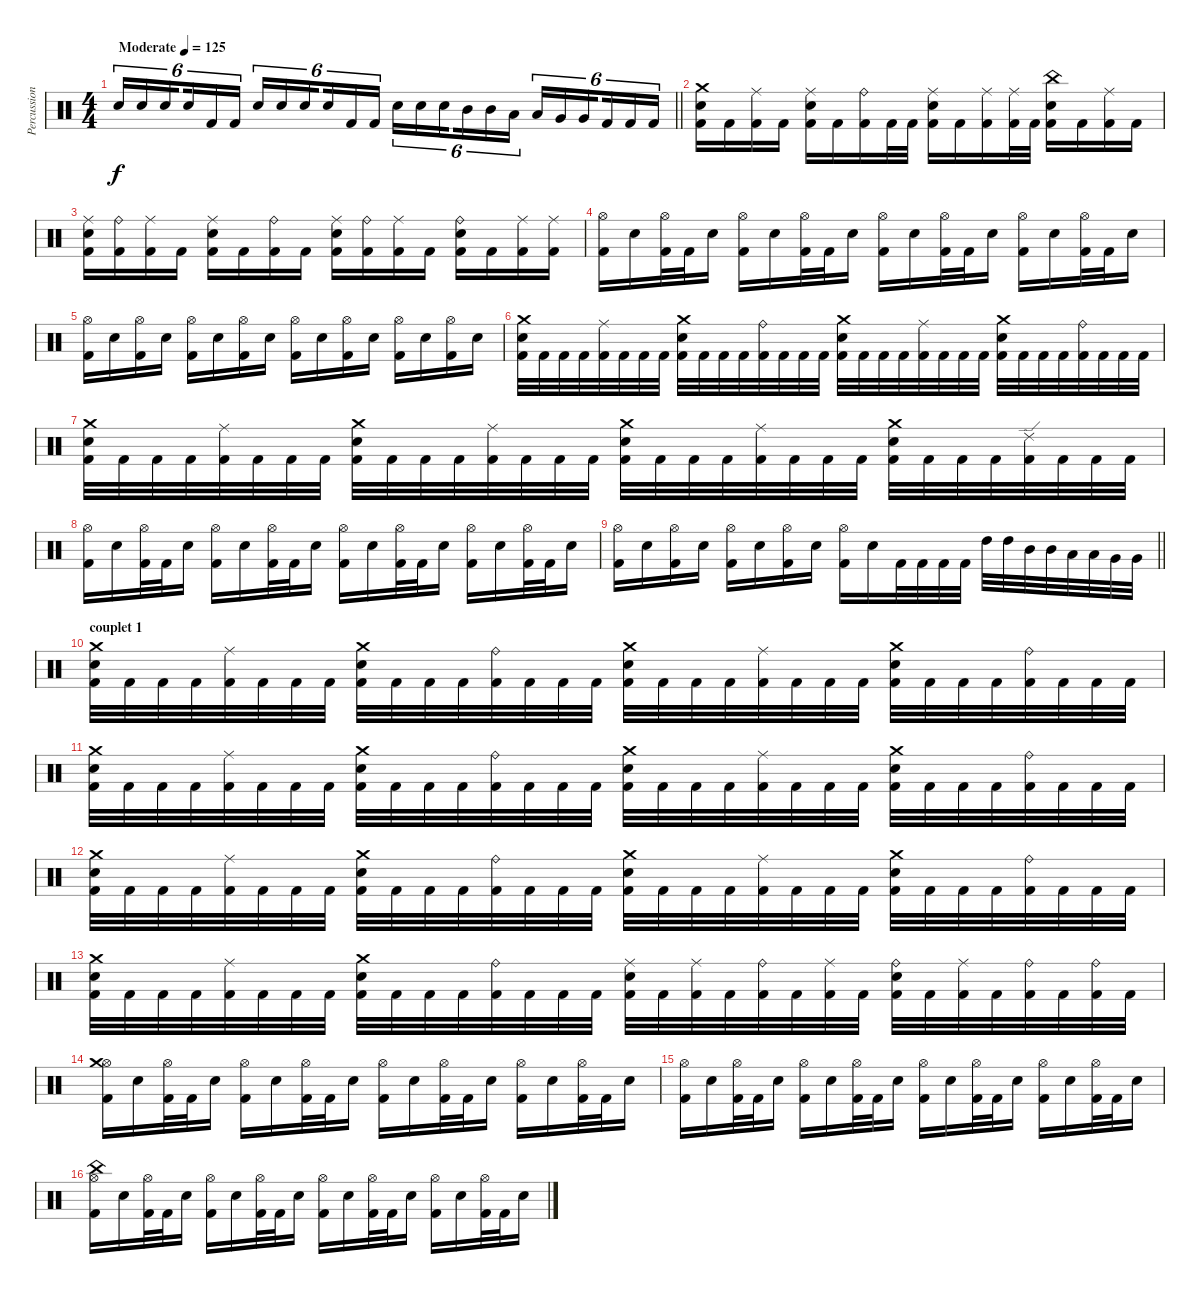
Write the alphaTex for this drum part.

\track ("Percussions" "Percussion") {instrument percussion}
\staff {score}
\articulation defaults
\ts (4 4)
\tempo (125 "Moderate")
\clef neutral
\barLineRight lightlight
\ks c "Electric Snare (hit)".16{tu (6 4) dy f} "Electric Snare (hit)".16{tu (6 4)} "Electric Snare (hit)".16{tu (6 4) beam splitsecondary} "Electric Snare (hit)".16{tu (6 4)} "Kick (hit) 2".16{tu (6 4)} "Kick (hit) 2".16{tu (6 4)} "Electric Snare (hit)".16{tu (6 4)} "Electric Snare (hit)".16{tu (6 4)} "Electric Snare (hit)".16{tu (6 4) beam splitsecondary} "Electric Snare (hit)".16{tu (6 4)} "Kick (hit) 2".16{tu (6 4)} "Kick (hit) 2".16{tu (6 4)} "Electric Snare (hit)".16{tu (6 4)} "Electric Snare (hit)".16{tu (6 4)} "Electric Snare (hit)".16{tu (6 4) beam splitsecondary} "Mid Tom (hit)".16{tu (6 4)} "Mid Tom (hit)".16{tu (6 4)} "Low Tom (hit)".16{tu (6 4)} "Low Tom (hit)".16{tu (6 4)} "Very Low Tom (hit)".16{tu (6 4)} "Very Low Tom (hit)".16{tu (6 4) beam splitsecondary} "Kick (hit) 2".16{tu (6 4)} "Kick (hit) 2".16{tu (6 4)} "Kick (hit) 2".16{tu (6 4)}
|
("Crash medium (hit)" "Electric Snare (hit)" "Kick (hit) 2").16 "Kick (hit) 2".16 ("Ride (middle)" "Kick (hit) 2").16 "Kick (hit) 2".16 ("Ride (middle)" "Electric Snare (hit)" "Kick (hit) 2").16 "Kick (hit) 2".16 ("Ride (bell)" "Kick (hit) 2").16 "Kick (hit) 2".32 "Kick (hit) 2".32 ("Ride (middle)" "Electric Snare (hit)" "Kick (hit) 2").16 "Kick (hit) 2".16 ("Ride (middle)" "Kick (hit) 2").16 ("Ride (middle)" "Kick (hit) 2").32 "Kick (hit) 2".32 ("China (hit)" "Electric Snare (hit)" "Kick (hit) 2").16 "Kick (hit) 2".16 ("Ride (middle)" "Kick (hit) 2").16 "Kick (hit) 2".16 |
("Ride (middle)" "Electric Snare (hit)" "Kick (hit) 2").16 ("Ride (bell)" "Kick (hit) 2").16 ("Ride (middle)" "Kick (hit) 2").16 "Kick (hit) 2".16 ("Ride (middle)" "Electric Snare (hit)" "Kick (hit) 2").16 "Kick (hit) 2".16 ("Ride (bell)" "Kick (hit) 2").16 "Kick (hit) 2".16 ("Ride (middle)" "Electric Snare (hit)" "Kick (hit) 2").16 ("Ride (bell)" "Kick (hit) 2").16 ("Ride (middle)" "Kick (hit) 2").16 "Kick (hit) 2".16 ("Ride (bell)" "Electric Snare (hit)" "Kick (hit) 2").16 "Kick (hit) 2".16 ("Ride (middle)" "Kick (hit) 2").16 ("Ride (middle)" "Kick (hit) 2").16 |
("Hi-Hat (open)" "Kick (hit) 2").16 "Electric Snare (hit)".16 ("Hi-Hat (open)" "Kick (hit) 2").32 "Kick (hit) 2".32 "Electric Snare (hit)".16 ("Hi-Hat (open)" "Kick (hit) 2").16 "Electric Snare (hit)".16 ("Hi-Hat (open)" "Kick (hit) 2").32 "Kick (hit) 2".32 "Electric Snare (hit)".16 ("Hi-Hat (open)" "Kick (hit) 2").16 "Electric Snare (hit)".16 ("Hi-Hat (open)" "Kick (hit) 2").32 "Kick (hit) 2".32 "Electric Snare (hit)".16 ("Hi-Hat (open)" "Kick (hit) 2").16 "Electric Snare (hit)".16 ("Hi-Hat (open)" "Kick (hit) 2").32 "Kick (hit) 2".32 "Electric Snare (hit)".16 |
("Hi-Hat (open)" "Kick (hit) 2").16 "Electric Snare (hit)".16 ("Hi-Hat (open)" "Kick (hit) 2").16 "Electric Snare (hit)".16 ("Hi-Hat (open)" "Kick (hit) 2").16 "Electric Snare (hit)".16 ("Hi-Hat (open)" "Kick (hit) 2").16 "Electric Snare (hit)".16 ("Hi-Hat (open)" "Kick (hit) 2").16 "Electric Snare (hit)".16 ("Hi-Hat (open)" "Kick (hit) 2").16 "Electric Snare (hit)".16 ("Hi-Hat (open)" "Kick (hit) 2").16 "Electric Snare (hit)".16 ("Hi-Hat (open)" "Kick (hit) 2").16 "Electric Snare (hit)".16 |
("Crash medium (hit)" "Electric Snare (hit)" "Kick (hit) 2").32 "Kick (hit) 2".32 "Kick (hit) 2".32 "Kick (hit) 2".32 ("Ride (middle)" "Kick (hit) 2").32 "Kick (hit) 2".32 "Kick (hit) 2".32 "Kick (hit) 2".32 ("Crash medium (hit)" "Electric Snare (hit)" "Kick (hit) 2").32 "Kick (hit) 2".32 "Kick (hit) 2".32 "Kick (hit) 2".32 ("Ride (bell)" "Kick (hit) 2").32 "Kick (hit) 2".32 "Kick (hit) 2".32 "Kick (hit) 2".32 ("Crash medium (hit)" "Electric Snare (hit)" "Kick (hit) 2").32 "Kick (hit) 2".32 "Kick (hit) 2".32 "Kick (hit) 2".32 ("Ride (middle)" "Kick (hit) 2").32 "Kick (hit) 2".32 "Kick (hit) 2".32 "Kick (hit) 2".32 ("Crash medium (hit)" "Electric Snare (hit)" "Kick (hit) 2").32 "Kick (hit) 2".32 "Kick (hit) 2".32 "Kick (hit) 2".32 ("Ride (bell)" "Kick (hit) 2").32 "Kick (hit) 2".32 "Kick (hit) 2".32 "Kick (hit) 2".32 |
("Crash medium (hit)" "Electric Snare (hit)" "Kick (hit) 2").32 "Kick (hit) 2".32 "Kick (hit) 2".32 "Kick (hit) 2".32 ("Ride (middle)" "Kick (hit) 2").32 "Kick (hit) 2".32 "Kick (hit) 2".32 "Kick (hit) 2".32 ("Crash medium (hit)" "Electric Snare (hit)" "Kick (hit) 2").32 "Kick (hit) 2".32 "Kick (hit) 2".32 "Kick (hit) 2".32 ("Ride (middle)" "Kick (hit) 2").32 "Kick (hit) 2".32 "Kick (hit) 2".32 "Kick (hit) 2".32 ("Crash medium (hit)" "Electric Snare (hit)" "Kick (hit) 2").32 "Kick (hit) 2".32 "Kick (hit) 2".32 "Kick (hit) 2".32 ("Ride (middle)" "Kick (hit) 2").32 "Kick (hit) 2".32 "Kick (hit) 2".32 "Kick (hit) 2".32 ("Crash medium (hit)" "Electric Snare (hit)" "Kick (hit) 2").32 "Kick (hit) 2".32 "Kick (hit) 2".32 "Kick (hit) 2".32 ("Ride (edge) 2" "Kick (hit) 2").32 "Kick (hit) 2".32 "Kick (hit) 2".32 "Kick (hit) 2".32 |
("Hi-Hat (open)" "Kick (hit) 2").16 "Electric Snare (hit)".16 ("Hi-Hat (open)" "Kick (hit) 2").32 "Kick (hit) 2".32 "Electric Snare (hit)".16 ("Hi-Hat (open)" "Kick (hit) 2").16 "Electric Snare (hit)".16 ("Hi-Hat (open)" "Kick (hit) 2").32 "Kick (hit) 2".32 "Electric Snare (hit)".16 ("Hi-Hat (open)" "Kick (hit) 2").16 "Electric Snare (hit)".16 ("Hi-Hat (open)" "Kick (hit) 2").32 "Kick (hit) 2".32 "Electric Snare (hit)".16 ("Hi-Hat (open)" "Kick (hit) 2").16 "Electric Snare (hit)".16 ("Hi-Hat (open)" "Kick (hit) 2").32 "Kick (hit) 2".32 "Electric Snare (hit)".16 |
\barLineRight lightlight
("Hi-Hat (open)" "Kick (hit) 2").16 "Electric Snare (hit)".16 ("Hi-Hat (open)" "Kick (hit) 2").16 "Electric Snare (hit)".16 ("Hi-Hat (open)" "Kick (hit) 2").16 "Electric Snare (hit)".16 ("Hi-Hat (open)" "Kick (hit) 2").16 "Electric Snare (hit)".16 ("Hi-Hat (open)" "Kick (hit) 2").16 "Electric Snare (hit)".16 "Kick (hit) 2".32 "Kick (hit) 2".32 "Kick (hit) 2".32 "Kick (hit) 2".32 "High Tom (hit)".32 "High Tom (hit)".32 "Mid Tom (hit)".32 "Mid Tom (hit)".32 "Low Tom (hit)".32 "Low Tom (hit)".32 "Very Low Tom (hit)".32 "Very Low Tom (hit)".32 |
\section ("" "couplet 1")
("Crash medium (hit)" "Electric Snare (hit)" "Kick (hit) 2").32 "Kick (hit) 2".32 "Kick (hit) 2".32 "Kick (hit) 2".32 ("Ride (middle)" "Kick (hit) 2").32 "Kick (hit) 2".32 "Kick (hit) 2".32 "Kick (hit) 2".32 ("Crash medium (hit)" "Electric Snare (hit)" "Kick (hit) 2").32 "Kick (hit) 2".32 "Kick (hit) 2".32 "Kick (hit) 2".32 ("Ride (bell)" "Kick (hit) 2").32 "Kick (hit) 2".32 "Kick (hit) 2".32 "Kick (hit) 2".32 ("Crash medium (hit)" "Electric Snare (hit)" "Kick (hit) 2").32 "Kick (hit) 2".32 "Kick (hit) 2".32 "Kick (hit) 2".32 ("Ride (middle)" "Kick (hit) 2").32 "Kick (hit) 2".32 "Kick (hit) 2".32 "Kick (hit) 2".32 ("Crash medium (hit)" "Electric Snare (hit)" "Kick (hit) 2").32 "Kick (hit) 2".32 "Kick (hit) 2".32 "Kick (hit) 2".32 ("Ride (bell)" "Kick (hit) 2").32 "Kick (hit) 2".32 "Kick (hit) 2".32 "Kick (hit) 2".32 |
("Crash medium (hit)" "Electric Snare (hit)" "Kick (hit) 2").32 "Kick (hit) 2".32 "Kick (hit) 2".32 "Kick (hit) 2".32 ("Ride (middle)" "Kick (hit) 2").32 "Kick (hit) 2".32 "Kick (hit) 2".32 "Kick (hit) 2".32 ("Crash medium (hit)" "Electric Snare (hit)" "Kick (hit) 2").32 "Kick (hit) 2".32 "Kick (hit) 2".32 "Kick (hit) 2".32 ("Ride (bell)" "Kick (hit) 2").32 "Kick (hit) 2".32 "Kick (hit) 2".32 "Kick (hit) 2".32 ("Crash medium (hit)" "Electric Snare (hit)" "Kick (hit) 2").32 "Kick (hit) 2".32 "Kick (hit) 2".32 "Kick (hit) 2".32 ("Ride (middle)" "Kick (hit) 2").32 "Kick (hit) 2".32 "Kick (hit) 2".32 "Kick (hit) 2".32 ("Crash medium (hit)" "Electric Snare (hit)" "Kick (hit) 2").32 "Kick (hit) 2".32 "Kick (hit) 2".32 "Kick (hit) 2".32 ("Ride (bell)" "Kick (hit) 2").32 "Kick (hit) 2".32 "Kick (hit) 2".32 "Kick (hit) 2".32 |
("Crash medium (hit)" "Electric Snare (hit)" "Kick (hit) 2").32 "Kick (hit) 2".32 "Kick (hit) 2".32 "Kick (hit) 2".32 ("Ride (middle)" "Kick (hit) 2").32 "Kick (hit) 2".32 "Kick (hit) 2".32 "Kick (hit) 2".32 ("Crash medium (hit)" "Electric Snare (hit)" "Kick (hit) 2").32 "Kick (hit) 2".32 "Kick (hit) 2".32 "Kick (hit) 2".32 ("Ride (bell)" "Kick (hit) 2").32 "Kick (hit) 2".32 "Kick (hit) 2".32 "Kick (hit) 2".32 ("Crash medium (hit)" "Electric Snare (hit)" "Kick (hit) 2").32 "Kick (hit) 2".32 "Kick (hit) 2".32 "Kick (hit) 2".32 ("Ride (middle)" "Kick (hit) 2").32 "Kick (hit) 2".32 "Kick (hit) 2".32 "Kick (hit) 2".32 ("Crash medium (hit)" "Electric Snare (hit)" "Kick (hit) 2").32 "Kick (hit) 2".32 "Kick (hit) 2".32 "Kick (hit) 2".32 ("Ride (bell)" "Kick (hit) 2").32 "Kick (hit) 2".32 "Kick (hit) 2".32 "Kick (hit) 2".32 |
("Crash medium (hit)" "Electric Snare (hit)" "Kick (hit) 2").32 "Kick (hit) 2".32 "Kick (hit) 2".32 "Kick (hit) 2".32 ("Ride (middle)" "Kick (hit) 2").32 "Kick (hit) 2".32 "Kick (hit) 2".32 "Kick (hit) 2".32 ("Crash medium (hit)" "Electric Snare (hit)" "Kick (hit) 2").32 "Kick (hit) 2".32 "Kick (hit) 2".32 "Kick (hit) 2".32 ("Ride (bell)" "Kick (hit) 2").32 "Kick (hit) 2".32 "Kick (hit) 2".32 "Kick (hit) 2".32 ("Ride (middle)" "Electric Snare (hit)" "Kick (hit) 2").32 "Kick (hit) 2".32 ("Ride (middle)" "Kick (hit) 2").32 "Kick (hit) 2".32 ("Ride (bell)" "Kick (hit) 2").32 "Kick (hit) 2".32 ("Ride (middle)" "Kick (hit) 2").32 "Kick (hit) 2".32 ("Ride (bell)" "Electric Snare (hit)" "Kick (hit) 2").32 "Kick (hit) 2".32 ("Ride (middle)" "Kick (hit) 2").32 "Kick (hit) 2".32 ("Ride (bell)" "Kick (hit) 2").32 "Kick (hit) 2".32 ("Ride (bell)" "Kick (hit) 2").32 "Kick (hit) 2".32 |
("Hi-Hat (open)" "Crash medium (hit)" "Kick (hit) 2").16 "Electric Snare (hit)".16 ("Hi-Hat (open)" "Kick (hit) 2").32 "Kick (hit) 2".32 "Electric Snare (hit)".16 ("Hi-Hat (open)" "Kick (hit) 2").16 "Electric Snare (hit)".16 ("Hi-Hat (open)" "Kick (hit) 2").32 "Kick (hit) 2".32 "Electric Snare (hit)".16 ("Hi-Hat (open)" "Kick (hit) 2").16 "Electric Snare (hit)".16 ("Hi-Hat (open)" "Kick (hit) 2").32 "Kick (hit) 2".32 "Electric Snare (hit)".16 ("Hi-Hat (open)" "Kick (hit) 2").16 "Electric Snare (hit)".16 ("Hi-Hat (open)" "Kick (hit) 2").32 "Kick (hit) 2".32 "Electric Snare (hit)".16 |
("Hi-Hat (open)" "Kick (hit) 2").16 "Electric Snare (hit)".16 ("Hi-Hat (open)" "Kick (hit) 2").32 "Kick (hit) 2".32 "Electric Snare (hit)".16 ("Hi-Hat (open)" "Kick (hit) 2").16 "Electric Snare (hit)".16 ("Hi-Hat (open)" "Kick (hit) 2").32 "Kick (hit) 2".32 "Electric Snare (hit)".16 ("Hi-Hat (open)" "Kick (hit) 2").16 "Electric Snare (hit)".16 ("Hi-Hat (open)" "Kick (hit) 2").32 "Kick (hit) 2".32 "Electric Snare (hit)".16 ("Hi-Hat (open)" "Kick (hit) 2").16 "Electric Snare (hit)".16 ("Hi-Hat (open)" "Kick (hit) 2").32 "Kick (hit) 2".32 "Electric Snare (hit)".16 |
("Hi-Hat (open)" "China (hit)" "Kick (hit) 2").16 "Electric Snare (hit)".16 ("Hi-Hat (open)" "Kick (hit) 2").32 "Kick (hit) 2".32 "Electric Snare (hit)".16 ("Hi-Hat (open)" "Kick (hit) 2").16 "Electric Snare (hit)".16 ("Hi-Hat (open)" "Kick (hit) 2").32 "Kick (hit) 2".32 "Electric Snare (hit)".16 ("Hi-Hat (open)" "Kick (hit) 2").16 "Electric Snare (hit)".16 ("Hi-Hat (open)" "Kick (hit) 2").32 "Kick (hit) 2".32 "Electric Snare (hit)".16 ("Hi-Hat (open)" "Kick (hit) 2").16 "Electric Snare (hit)".16 ("Hi-Hat (open)" "Kick (hit) 2").32 "Kick (hit) 2".32 "Electric Snare (hit)".16
